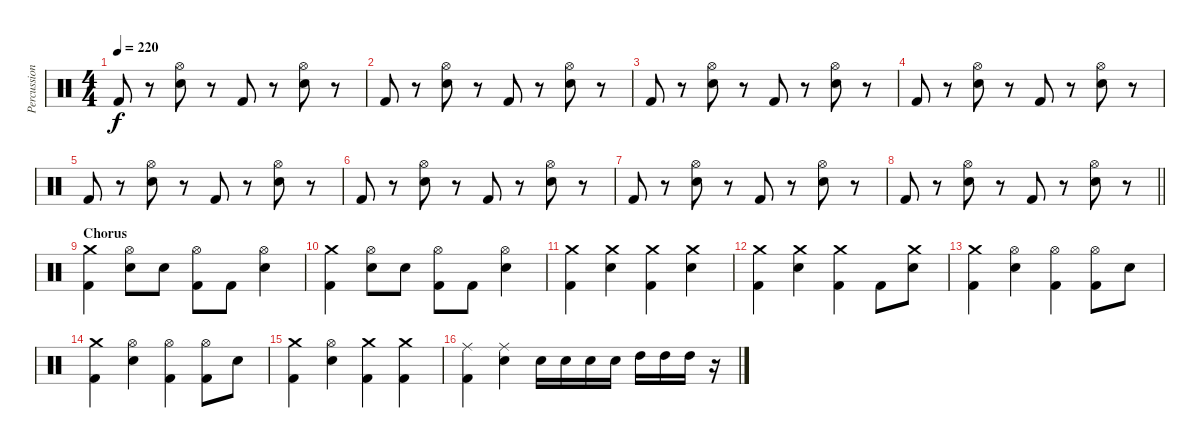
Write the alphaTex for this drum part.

\track ("Percussion" "Percussion") {instrument percussion}
\staff {score}
\articulation defaults
\ts (4 4)
\tempo 220
\clef neutral
\ks c "Kick (hit) 2".8{dy f}
r.8 ("Hi-Hat (open)" "Snare (hit) 2").8 r.8 "Kick (hit) 2".8 r.8 ("Hi-Hat (open)" "Snare (hit) 2").8 r.8 |
"Kick (hit) 2".8 r.8 ("Hi-Hat (open)" "Snare (hit) 2").8 r.8 "Kick (hit) 2".8 r.8 ("Hi-Hat (open)" "Snare (hit) 2").8 r.8 |
"Kick (hit) 2".8 r.8 ("Hi-Hat (open)" "Snare (hit) 2").8 r.8 "Kick (hit) 2".8 r.8 ("Hi-Hat (open)" "Snare (hit) 2").8 r.8 |
"Kick (hit) 2".8 r.8 ("Hi-Hat (open)" "Snare (hit) 2").8 r.8 "Kick (hit) 2".8 r.8 ("Hi-Hat (open)" "Snare (hit) 2").8 r.8 |
"Kick (hit) 2".8 r.8 ("Hi-Hat (open)" "Snare (hit) 2").8 r.8 "Kick (hit) 2".8 r.8 ("Hi-Hat (open)" "Snare (hit) 2").8 r.8 |
"Kick (hit) 2".8 r.8 ("Hi-Hat (open)" "Snare (hit) 2").8 r.8 "Kick (hit) 2".8 r.8 ("Hi-Hat (open)" "Snare (hit) 2").8 r.8 |
"Kick (hit) 2".8 r.8 ("Hi-Hat (open)" "Snare (hit) 2").8 r.8 "Kick (hit) 2".8 r.8 ("Hi-Hat (open)" "Snare (hit) 2").8 r.8 |
\barLineRight lightlight "Kick (hit) 2".8
r.8 ("Hi-Hat (open)" "Snare (hit) 2").8 r.8 "Kick (hit) 2".8 r.8 ("Hi-Hat (open)" "Snare (hit) 2").8 r.8 |
\section ("" "Chorus")
("Crash medium (hit)" "Kick (hit) 2").4 ("Hi-Hat (open)" "Snare (hit) 2").8 "Snare (hit) 2".8 ("Hi-Hat (open)" "Kick (hit) 2").8 "Kick (hit) 2".8 ("Hi-Hat (open)" "Snare (hit) 2").4 |
("Crash medium (hit)" "Kick (hit) 2").4 ("Hi-Hat (open)" "Snare (hit) 2").8 "Snare (hit) 2".8 ("Hi-Hat (open)" "Kick (hit) 2").8 "Kick (hit) 2".8 ("Hi-Hat (open)" "Snare (hit) 2").4 |
("Crash medium (hit)" "Kick (hit) 2").4 ("Crash medium (hit)" "Snare (hit) 2").4 ("Crash medium (hit)" "Kick (hit) 2").4 ("Crash medium (hit)" "Snare (hit) 2").4 |
("Crash medium (hit)" "Kick (hit) 2").4 ("Crash medium (hit)" "Snare (hit) 2").4 ("Crash medium (hit)" "Kick (hit) 2").4 "Kick (hit) 2".8 ("Crash medium (hit)" "Snare (hit) 2").8 |
("Crash medium (hit)" "Kick (hit) 2").4 ("Hi-Hat (open)" "Snare (hit) 2").4 ("Hi-Hat (open)" "Kick (hit) 2").4 ("Hi-Hat (open)" "Kick (hit) 2").8 "Snare (hit) 2".8 |
("Crash medium (hit)" "Kick (hit) 2").4 ("Hi-Hat (open)" "Snare (hit) 2").4 ("Hi-Hat (open)" "Kick (hit) 2").4 ("Hi-Hat (open)" "Kick (hit) 2").8 "Snare (hit) 2".8 |
("Crash medium (hit)" "Kick (hit) 2").4 ("Hi-Hat (open)" "Snare (hit) 2").4 ("Crash medium (hit)" "Kick (hit) 2").4 ("Crash medium (hit)" "Kick (hit) 2").4 |
("Ride (middle)" "Kick (hit) 2").4 ("Ride (middle)" "Snare (hit) 2").4 "Snare (hit) 2".16 "Snare (hit) 2".16 "Snare (hit) 2".16 "Snare (hit) 2".16 "High Tom (hit)".16 "High Tom (hit)".16 "High Tom (hit)".16 r.16
